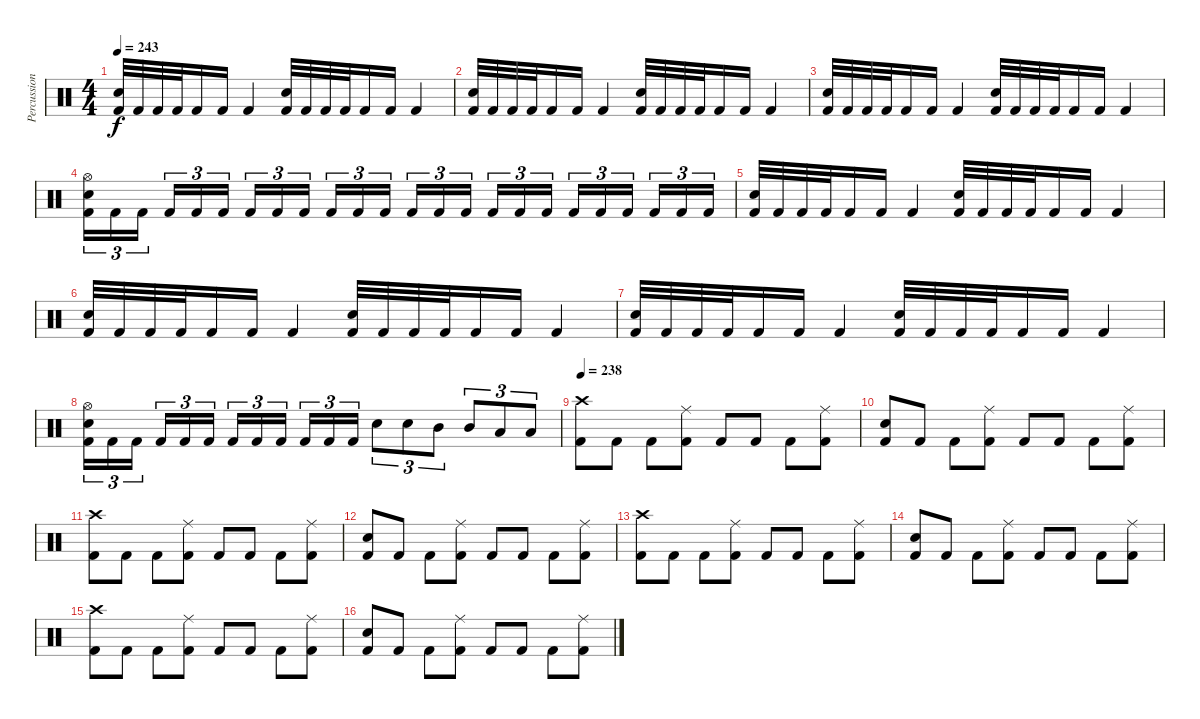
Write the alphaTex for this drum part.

\track ("Percussion" "Percussion") {instrument percussion}
\staff {score}
\articulation defaults
\ts (4 4)
\tempo 243
\clef neutral
\ks c
("Electric Snare (hit)" "Kick (hit) 2").32{dy f} "Kick (hit) 2".32 "Kick (hit) 2".32 "Kick (hit) 2".32 "Kick (hit) 2".16 "Kick (hit) 2".16 "Kick (hit) 2".4 ("Electric Snare (hit)" "Kick (hit) 2").32 "Kick (hit) 2".32 "Kick (hit) 2".32 "Kick (hit) 2".32 "Kick (hit) 2".16 "Kick (hit) 2".16 "Kick (hit) 2".4 |
("Electric Snare (hit)" "Kick (hit) 2").32 "Kick (hit) 2".32 "Kick (hit) 2".32 "Kick (hit) 2".32 "Kick (hit) 2".16 "Kick (hit) 2".16 "Kick (hit) 2".4 ("Electric Snare (hit)" "Kick (hit) 2").32 "Kick (hit) 2".32 "Kick (hit) 2".32 "Kick (hit) 2".32 "Kick (hit) 2".16 "Kick (hit) 2".16 "Kick (hit) 2".4 |
("Electric Snare (hit)" "Kick (hit) 2").32 "Kick (hit) 2".32 "Kick (hit) 2".32 "Kick (hit) 2".32 "Kick (hit) 2".16 "Kick (hit) 2".16 "Kick (hit) 2".4 ("Electric Snare (hit)" "Kick (hit) 2").32 "Kick (hit) 2".32 "Kick (hit) 2".32 "Kick (hit) 2".32 "Kick (hit) 2".16 "Kick (hit) 2".16 "Kick (hit) 2".4 |
("Hi-Hat (open)" "Electric Snare (hit)" "Kick (hit) 2").16{tu (3 2)} "Kick (hit) 2".16{tu (3 2)} "Kick (hit) 2".16{tu (3 2)} "Kick (hit) 2".16{tu (3 2)} "Kick (hit) 2".16{tu (3 2)} "Kick (hit) 2".16{tu (3 2)} "Kick (hit) 2".16{tu (3 2)} "Kick (hit) 2".16{tu (3 2)} "Kick (hit) 2".16{tu (3 2)} "Kick (hit) 2".16{tu (3 2)} "Kick (hit) 2".16{tu (3 2)} "Kick (hit) 2".16{tu (3 2)} "Kick (hit) 2".16{tu (3 2)} "Kick (hit) 2".16{tu (3 2)} "Kick (hit) 2".16{tu (3 2)} "Kick (hit) 2".16{tu (3 2)} "Kick (hit) 2".16{tu (3 2)} "Kick (hit) 2".16{tu (3 2)} "Kick (hit) 2".16{tu (3 2)} "Kick (hit) 2".16{tu (3 2)} "Kick (hit) 2".16{tu (3 2)} "Kick (hit) 2".16{tu (3 2)} "Kick (hit) 2".16{tu (3 2)} "Kick (hit) 2".16{tu (3 2)} |
("Electric Snare (hit)" "Kick (hit) 2").32 "Kick (hit) 2".32 "Kick (hit) 2".32 "Kick (hit) 2".32 "Kick (hit) 2".16 "Kick (hit) 2".16 "Kick (hit) 2".4 ("Electric Snare (hit)" "Kick (hit) 2").32 "Kick (hit) 2".32 "Kick (hit) 2".32 "Kick (hit) 2".32 "Kick (hit) 2".16 "Kick (hit) 2".16 "Kick (hit) 2".4 |
("Electric Snare (hit)" "Kick (hit) 2").32 "Kick (hit) 2".32 "Kick (hit) 2".32 "Kick (hit) 2".32 "Kick (hit) 2".16 "Kick (hit) 2".16 "Kick (hit) 2".4 ("Electric Snare (hit)" "Kick (hit) 2").32 "Kick (hit) 2".32 "Kick (hit) 2".32 "Kick (hit) 2".32 "Kick (hit) 2".16 "Kick (hit) 2".16 "Kick (hit) 2".4 |
("Electric Snare (hit)" "Kick (hit) 2").32 "Kick (hit) 2".32 "Kick (hit) 2".32 "Kick (hit) 2".32 "Kick (hit) 2".16 "Kick (hit) 2".16 "Kick (hit) 2".4 ("Electric Snare (hit)" "Kick (hit) 2").32 "Kick (hit) 2".32 "Kick (hit) 2".32 "Kick (hit) 2".32 "Kick (hit) 2".16 "Kick (hit) 2".16 "Kick (hit) 2".4 |
("Hi-Hat (open)" "Electric Snare (hit)" "Kick (hit) 2").16{tu (3 2)} "Kick (hit) 2".16{tu (3 2)} "Kick (hit) 2".16{tu (3 2)} "Kick (hit) 2".16{tu (3 2)} "Kick (hit) 2".16{tu (3 2)} "Kick (hit) 2".16{tu (3 2)} "Kick (hit) 2".16{tu (3 2)} "Kick (hit) 2".16{tu (3 2)} "Kick (hit) 2".16{tu (3 2)} "Kick (hit) 2".16{tu (3 2)} "Kick (hit) 2".16{tu (3 2)} "Kick (hit) 2".16{tu (3 2)} "Electric Snare (hit)".8{tu (3 2)} "Electric Snare (hit)".8{tu (3 2)} "Mid Tom (hit)".8{tu (3 2)} "Mid Tom (hit)".8{tu (3 2)} "Low Tom (hit)".8{tu (3 2)} "Low Tom (hit)".8{tu (3 2)} |
\tempo 238
("Crash high (hit)" "Kick (hit) 2").8 "Kick (hit) 2".8 "Kick (hit) 2".8 ("Ride (middle)" "Kick (hit) 2").8 "Kick (hit) 2".8 "Kick (hit) 2".8 "Kick (hit) 2".8 ("Ride (middle)" "Kick (hit) 2").8 |
("Electric Snare (hit)" "Kick (hit) 2").8 "Kick (hit) 2".8 "Kick (hit) 2".8 ("Ride (middle)" "Kick (hit) 2").8 "Kick (hit) 2".8 "Kick (hit) 2".8 "Kick (hit) 2".8 ("Ride (middle)" "Kick (hit) 2").8 |
("Crash high (hit)" "Kick (hit) 2").8 "Kick (hit) 2".8 "Kick (hit) 2".8 ("Ride (middle)" "Kick (hit) 2").8 "Kick (hit) 2".8 "Kick (hit) 2".8 "Kick (hit) 2".8 ("Ride (middle)" "Kick (hit) 2").8 |
("Electric Snare (hit)" "Kick (hit) 2").8 "Kick (hit) 2".8 "Kick (hit) 2".8 ("Ride (middle)" "Kick (hit) 2").8 "Kick (hit) 2".8 "Kick (hit) 2".8 "Kick (hit) 2".8 ("Ride (middle)" "Kick (hit) 2").8 |
("Crash high (hit)" "Kick (hit) 2").8 "Kick (hit) 2".8 "Kick (hit) 2".8 ("Ride (middle)" "Kick (hit) 2").8 "Kick (hit) 2".8 "Kick (hit) 2".8 "Kick (hit) 2".8 ("Ride (middle)" "Kick (hit) 2").8 |
("Electric Snare (hit)" "Kick (hit) 2").8 "Kick (hit) 2".8 "Kick (hit) 2".8 ("Ride (middle)" "Kick (hit) 2").8 "Kick (hit) 2".8 "Kick (hit) 2".8 "Kick (hit) 2".8 ("Ride (middle)" "Kick (hit) 2").8 |
("Crash high (hit)" "Kick (hit) 2").8 "Kick (hit) 2".8 "Kick (hit) 2".8 ("Ride (middle)" "Kick (hit) 2").8 "Kick (hit) 2".8 "Kick (hit) 2".8 "Kick (hit) 2".8 ("Ride (middle)" "Kick (hit) 2").8 |
("Electric Snare (hit)" "Kick (hit) 2").8 "Kick (hit) 2".8 "Kick (hit) 2".8 ("Ride (middle)" "Kick (hit) 2").8 "Kick (hit) 2".8 "Kick (hit) 2".8 "Kick (hit) 2".8 ("Ride (middle)" "Kick (hit) 2").8
